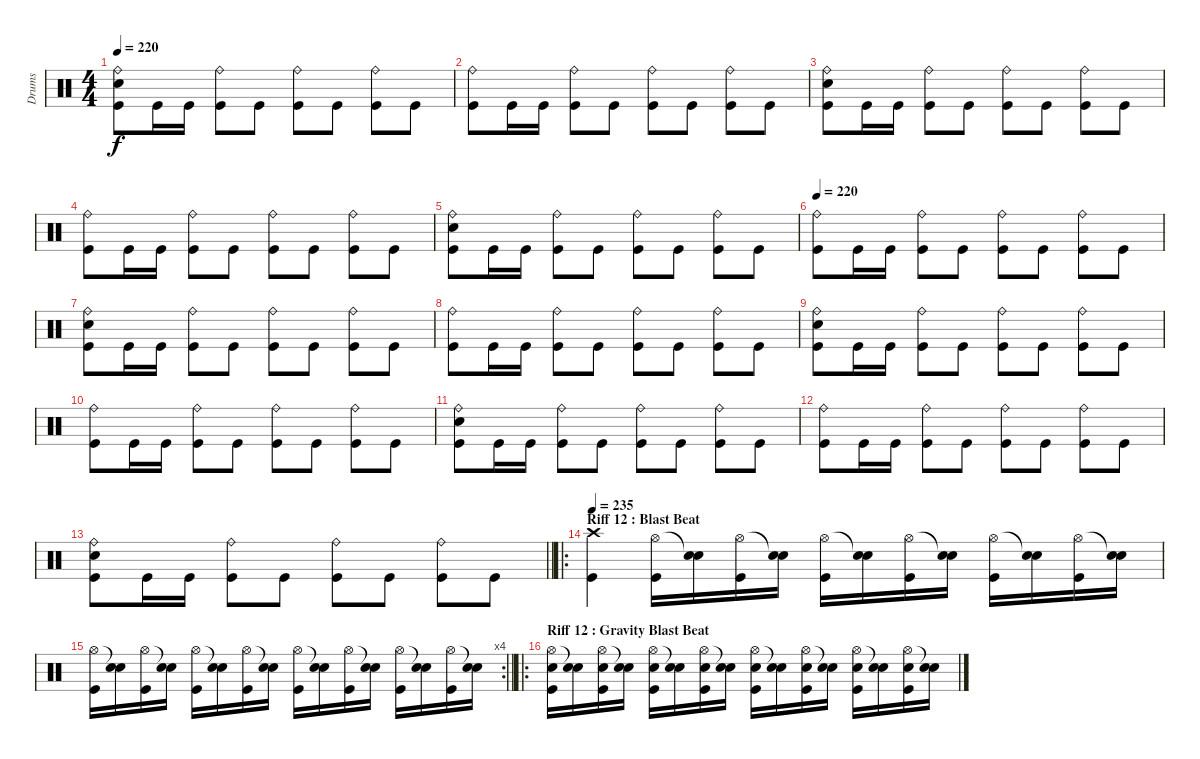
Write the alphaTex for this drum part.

\track ("Drums" "Drums") {instrument percussion}
\staff {score}
\articulation defaults
\ts (4 4)
\tempo 220
\clef neutral
\ks c
("Ride (bell)" "Electric Snare (hit)" "Kick (hit)").8{dy f} "Kick (hit)".16 "Kick (hit)".16 ("Ride (bell)" "Kick (hit)").8 "Kick (hit)".8 ("Ride (bell)" "Kick (hit)").8 "Kick (hit)".8 ("Ride (bell)" "Kick (hit)").8 "Kick (hit)".8 |
("Ride (bell)" "Kick (hit)").8 "Kick (hit)".16 "Kick (hit)".16 ("Ride (bell)" "Kick (hit)").8 "Kick (hit)".8 ("Ride (bell)" "Kick (hit)").8 "Kick (hit)".8 ("Ride (bell)" "Kick (hit)").8 "Kick (hit)".8 |
("Ride (bell)" "Electric Snare (hit)" "Kick (hit)").8 "Kick (hit)".16 "Kick (hit)".16 ("Ride (bell)" "Kick (hit)").8 "Kick (hit)".8 ("Ride (bell)" "Kick (hit)").8 "Kick (hit)".8 ("Ride (bell)" "Kick (hit)").8 "Kick (hit)".8 |
("Ride (bell)" "Kick (hit)").8 "Kick (hit)".16 "Kick (hit)".16 ("Ride (bell)" "Kick (hit)").8 "Kick (hit)".8 ("Ride (bell)" "Kick (hit)").8 "Kick (hit)".8 ("Ride (bell)" "Kick (hit)").8 "Kick (hit)".8 |
("Ride (bell)" "Electric Snare (hit)" "Kick (hit)").8 "Kick (hit)".16 "Kick (hit)".16 ("Ride (bell)" "Kick (hit)").8 "Kick (hit)".8 ("Ride (bell)" "Kick (hit)").8 "Kick (hit)".8 ("Ride (bell)" "Kick (hit)").8 "Kick (hit)".8 |
\tempo 220
("Ride (bell)" "Kick (hit)").8 "Kick (hit)".16 "Kick (hit)".16 ("Ride (bell)" "Kick (hit)").8 "Kick (hit)".8 ("Ride (bell)" "Kick (hit)").8 "Kick (hit)".8 ("Ride (bell)" "Kick (hit)").8 "Kick (hit)".8 |
("Ride (bell)" "Electric Snare (hit)" "Kick (hit)").8 "Kick (hit)".16 "Kick (hit)".16 ("Ride (bell)" "Kick (hit)").8 "Kick (hit)".8 ("Ride (bell)" "Kick (hit)").8 "Kick (hit)".8 ("Ride (bell)" "Kick (hit)").8 "Kick (hit)".8 |
("Ride (bell)" "Kick (hit)").8 "Kick (hit)".16 "Kick (hit)".16 ("Ride (bell)" "Kick (hit)").8 "Kick (hit)".8 ("Ride (bell)" "Kick (hit)").8 "Kick (hit)".8 ("Ride (bell)" "Kick (hit)").8 "Kick (hit)".8 |
("Ride (bell)" "Electric Snare (hit)" "Kick (hit)").8 "Kick (hit)".16 "Kick (hit)".16 ("Ride (bell)" "Kick (hit)").8 "Kick (hit)".8 ("Ride (bell)" "Kick (hit)").8 "Kick (hit)".8 ("Ride (bell)" "Kick (hit)").8 "Kick (hit)".8 |
("Ride (bell)" "Kick (hit)").8 "Kick (hit)".16 "Kick (hit)".16 ("Ride (bell)" "Kick (hit)").8 "Kick (hit)".8 ("Ride (bell)" "Kick (hit)").8 "Kick (hit)".8 ("Ride (bell)" "Kick (hit)").8 "Kick (hit)".8 |
("Ride (bell)" "Electric Snare (hit)" "Kick (hit)").8 "Kick (hit)".16 "Kick (hit)".16 ("Ride (bell)" "Kick (hit)").8 "Kick (hit)".8 ("Ride (bell)" "Kick (hit)").8 "Kick (hit)".8 ("Ride (bell)" "Kick (hit)").8 "Kick (hit)".8 |
("Ride (bell)" "Kick (hit)").8 "Kick (hit)".16 "Kick (hit)".16 ("Ride (bell)" "Kick (hit)").8 "Kick (hit)".8 ("Ride (bell)" "Kick (hit)").8 "Kick (hit)".8 ("Ride (bell)" "Kick (hit)").8 "Kick (hit)".8 |
\barLineRight lightlight
("Ride (bell)" "Electric Snare (hit)" "Kick (hit)").8 "Kick (hit)".16 "Kick (hit)".16 ("Ride (bell)" "Kick (hit)").8 "Kick (hit)".8 ("Ride (bell)" "Kick (hit)").8 "Kick (hit)".8 ("Ride (bell)" "Kick (hit)").8 "Kick (hit)".8 |
\ro
\section ("" "Riff 12 : Blast Beat")
\tempo 235
("Crash high (hit)" "Kick (hit)").4 ("Hi-Hat (open)" "Kick (hit)").16 ("Snare (hit)"{t} "Electric Snare (hit)").16 ("Hi-Hat (open)" "Kick (hit)").16 ("Snare (hit)"{t} "Electric Snare (hit)").16 ("Hi-Hat (open)" "Kick (hit)").16 ("Snare (hit)"{t} "Electric Snare (hit)").16 ("Hi-Hat (open)" "Kick (hit)").16 ("Snare (hit)"{t} "Electric Snare (hit)").16 ("Hi-Hat (open)" "Kick (hit)").16 ("Snare (hit)"{t} "Electric Snare (hit)").16 ("Hi-Hat (open)" "Kick (hit)").16 ("Snare (hit)"{t} "Electric Snare (hit)").16 |
\rc 4
\barLineRight lightlight
("Hi-Hat (open)" "Kick (hit)").16 ("Snare (hit)"{t} "Electric Snare (hit)").16 ("Hi-Hat (open)" "Kick (hit)").16 ("Snare (hit)"{t} "Electric Snare (hit)").16 ("Hi-Hat (open)" "Kick (hit)").16 ("Snare (hit)"{t} "Electric Snare (hit)").16 ("Hi-Hat (open)" "Kick (hit)").16 ("Snare (hit)"{t} "Electric Snare (hit)").16 ("Hi-Hat (open)" "Kick (hit)").16 ("Snare (hit)"{t} "Electric Snare (hit)").16 ("Hi-Hat (open)" "Kick (hit)").16 ("Snare (hit)"{t} "Electric Snare (hit)").16 ("Hi-Hat (open)" "Kick (hit)").16 ("Snare (hit)"{t} "Electric Snare (hit)").16 ("Hi-Hat (open)" "Kick (hit)").16 ("Snare (hit)"{t} "Electric Snare (hit)").16 |
\ro
\section ("" "Riff 12 : Gravity Blast Beat")
("Hi-Hat (open)" "Electric Snare (hit)" "Kick (hit)").16 ("Snare (hit)"{t} "Electric Snare (hit)").16 ("Hi-Hat (open)" "Electric Snare (hit)" "Kick (hit)").16 ("Snare (hit)"{t} "Electric Snare (hit)").16 ("Hi-Hat (open)" "Electric Snare (hit)" "Kick (hit)").16 ("Snare (hit)"{t} "Electric Snare (hit)").16 ("Hi-Hat (open)" "Electric Snare (hit)" "Kick (hit)").16 ("Snare (hit)"{t} "Electric Snare (hit)").16 ("Hi-Hat (open)" "Electric Snare (hit)" "Kick (hit)").16 ("Snare (hit)"{t} "Electric Snare (hit)").16 ("Hi-Hat (open)" "Electric Snare (hit)" "Kick (hit)").16 ("Snare (hit)"{t} "Electric Snare (hit)").16 ("Hi-Hat (open)" "Electric Snare (hit)" "Kick (hit)").16 ("Snare (hit)"{t} "Electric Snare (hit)").16 ("Hi-Hat (open)" "Electric Snare (hit)" "Kick (hit)").16 ("Snare (hit)"{t} "Electric Snare (hit)").16
